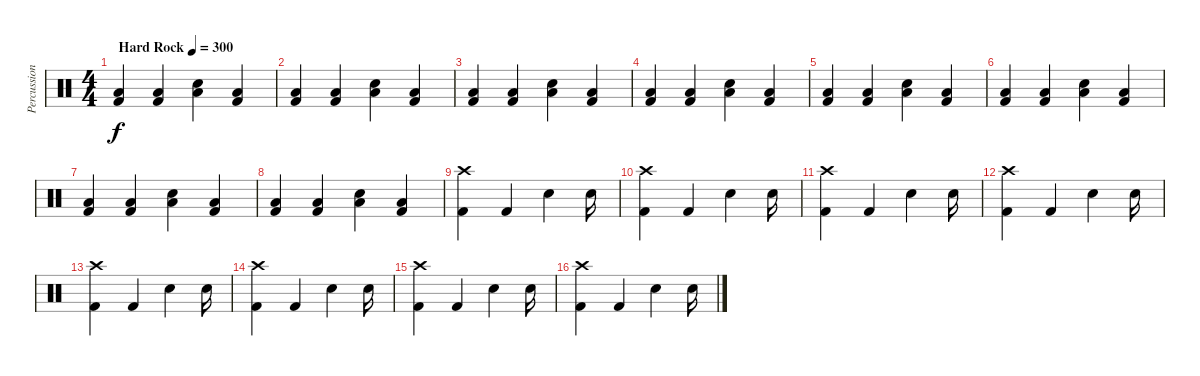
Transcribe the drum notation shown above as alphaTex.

\track ("Percussion" "Percussion") {instrument percussion}
\staff {score}
\articulation defaults
\ts (4 4)
\tempo (300 "Hard Rock")
\clef neutral
\ks c
("Low Floor Tom (hit)" "Kick (hit) 2").4{dy f} ("Low Floor Tom (hit)" "Kick (hit) 2").4 ("Low Floor Tom (hit)" "Snare (hit) 2").4 ("Low Floor Tom (hit)" "Kick (hit) 2").4 |
("Low Floor Tom (hit)" "Kick (hit) 2").4 ("Low Floor Tom (hit)" "Kick (hit) 2").4 ("Low Floor Tom (hit)" "Snare (hit) 2").4 ("Low Floor Tom (hit)" "Kick (hit) 2").4 |
("Low Floor Tom (hit)" "Kick (hit) 2").4 ("Low Floor Tom (hit)" "Kick (hit) 2").4 ("Low Floor Tom (hit)" "Snare (hit) 2").4 ("Low Floor Tom (hit)" "Kick (hit) 2").4 |
("Low Floor Tom (hit)" "Kick (hit) 2").4 ("Low Floor Tom (hit)" "Kick (hit) 2").4 ("Low Floor Tom (hit)" "Snare (hit) 2").4 ("Low Floor Tom (hit)" "Kick (hit) 2").4 |
("Low Floor Tom (hit)" "Kick (hit) 2").4 ("Low Floor Tom (hit)" "Kick (hit) 2").4 ("Low Floor Tom (hit)" "Snare (hit) 2").4 ("Low Floor Tom (hit)" "Kick (hit) 2").4 |
("Low Floor Tom (hit)" "Kick (hit) 2").4 ("Low Floor Tom (hit)" "Kick (hit) 2").4 ("Low Floor Tom (hit)" "Snare (hit) 2").4 ("Low Floor Tom (hit)" "Kick (hit) 2").4 |
("Low Floor Tom (hit)" "Kick (hit) 2").4 ("Low Floor Tom (hit)" "Kick (hit) 2").4 ("Low Floor Tom (hit)" "Snare (hit) 2").4 ("Low Floor Tom (hit)" "Kick (hit) 2").4 |
("Low Floor Tom (hit)" "Kick (hit) 2").4 ("Low Floor Tom (hit)" "Kick (hit) 2").4 ("Low Floor Tom (hit)" "Snare (hit) 2").4 ("Low Floor Tom (hit)" "Kick (hit) 2").4 |
("Crash high (hit)" "Kick (hit) 2").4 "Kick (hit) 2".4 "Snare (hit) 2".4 "Snare (hit) 2".16 |
("Crash high (hit)" "Kick (hit) 2").4 "Kick (hit) 2".4 "Snare (hit) 2".4 "Snare (hit) 2".16 |
("Crash high (hit)" "Kick (hit) 2").4 "Kick (hit) 2".4 "Snare (hit) 2".4 "Snare (hit) 2".16 |
("Crash high (hit)" "Kick (hit) 2").4 "Kick (hit) 2".4 "Snare (hit) 2".4 "Snare (hit) 2".16 |
("Crash high (hit)" "Kick (hit) 2").4 "Kick (hit) 2".4 "Snare (hit) 2".4 "Snare (hit) 2".16 |
("Crash high (hit)" "Kick (hit) 2").4 "Kick (hit) 2".4 "Snare (hit) 2".4 "Snare (hit) 2".16 |
("Crash high (hit)" "Kick (hit) 2").4 "Kick (hit) 2".4 "Snare (hit) 2".4 "Snare (hit) 2".16 |
("Crash high (hit)" "Kick (hit) 2").4 "Kick (hit) 2".4 "Snare (hit) 2".4 "Snare (hit) 2".16
